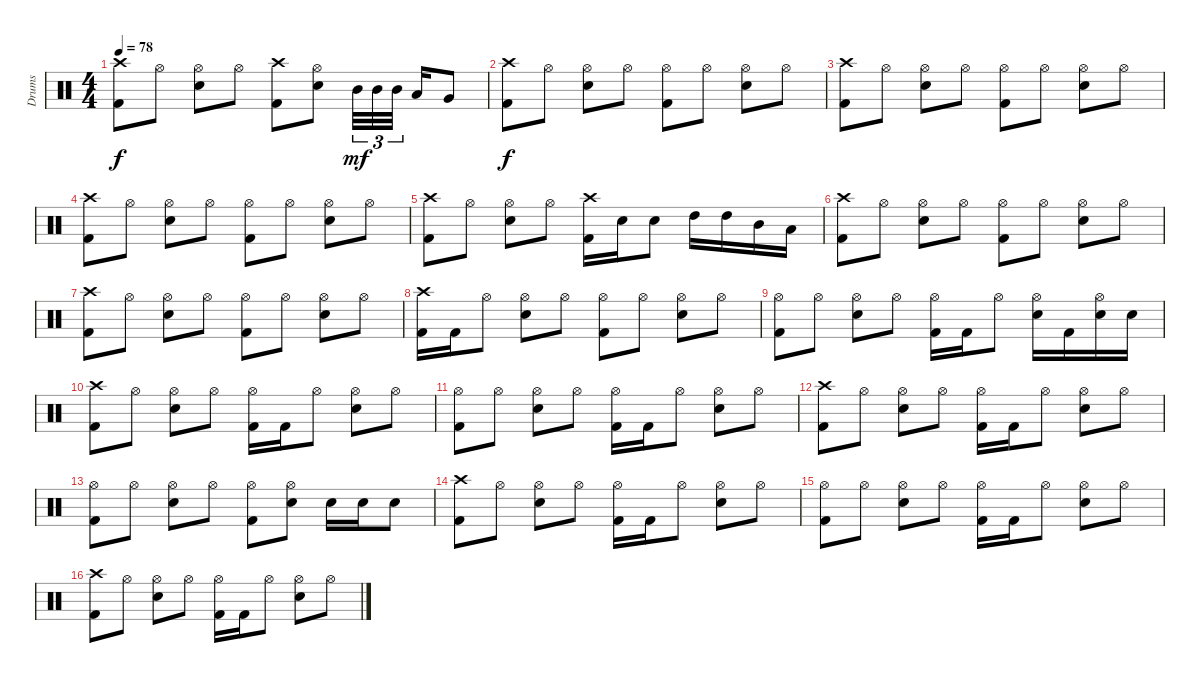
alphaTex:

\track ("Drums" "Drums") {instrument percussion}
\staff {score}
\articulation defaults
\ts (4 4)
\tempo 78
\clef neutral
\ks c
("Crash high (hit)" "Kick (hit) 2").8{dy f} "Hi-Hat (open)".8 ("Hi-Hat (open)" "Snare (hit) 2").8 "Hi-Hat (open)".8 ("Crash high (hit)" "Kick (hit) 2").8 ("Hi-Hat (open)" "Snare (hit) 2").8 "Mid Tom (hit)".32{tu (3 2) dy mf} "Mid Tom (hit)".32{tu (3 2)} "Mid Tom (hit)".32{tu (3 2)} "Low Tom (hit)".16 "Very Low Tom (hit)".8 |
("Crash high (hit)" "Kick (hit) 2").8{dy f} "Hi-Hat (open)".8 ("Hi-Hat (open)" "Snare (hit) 2").8 "Hi-Hat (open)".8 ("Hi-Hat (open)" "Kick (hit) 2").8 "Hi-Hat (open)".8 ("Hi-Hat (open)" "Snare (hit) 2").8 "Hi-Hat (open)".8 |
("Crash high (hit)" "Kick (hit) 2").8 "Hi-Hat (open)".8 ("Hi-Hat (open)" "Snare (hit) 2").8 "Hi-Hat (open)".8 ("Hi-Hat (open)" "Kick (hit) 2").8 "Hi-Hat (open)".8 ("Hi-Hat (open)" "Snare (hit) 2").8 "Hi-Hat (open)".8 |
("Crash high (hit)" "Kick (hit) 2").8 "Hi-Hat (open)".8 ("Hi-Hat (open)" "Snare (hit) 2").8 "Hi-Hat (open)".8 ("Hi-Hat (open)" "Kick (hit) 2").8 "Hi-Hat (open)".8 ("Hi-Hat (open)" "Snare (hit) 2").8 "Hi-Hat (open)".8 |
("Crash high (hit)" "Kick (hit) 2").8 "Hi-Hat (open)".8 ("Hi-Hat (open)" "Snare (hit) 2").8 "Hi-Hat (open)".8 ("Crash high (hit)" "Kick (hit) 2").16 "Snare (hit) 2".16 "Snare (hit) 2".8 "High Tom (hit)".16 "High Tom (hit)".16 "Mid Tom (hit)".16 "Low Tom (hit)".16 |
("Crash high (hit)" "Kick (hit) 2").8 "Hi-Hat (open)".8 ("Hi-Hat (open)" "Snare (hit) 2").8 "Hi-Hat (open)".8 ("Hi-Hat (open)" "Kick (hit) 2").8 "Hi-Hat (open)".8 ("Hi-Hat (open)" "Snare (hit) 2").8 "Hi-Hat (open)".8 |
("Crash high (hit)" "Kick (hit) 2").8 "Hi-Hat (open)".8 ("Hi-Hat (open)" "Snare (hit) 2").8 "Hi-Hat (open)".8 ("Hi-Hat (open)" "Kick (hit) 2").8 "Hi-Hat (open)".8 ("Hi-Hat (open)" "Snare (hit) 2").8 "Hi-Hat (open)".8 |
("Crash high (hit)" "Kick (hit) 2").16 "Kick (hit) 2".16 "Hi-Hat (open)".8 ("Hi-Hat (open)" "Snare (hit) 2").8 "Hi-Hat (open)".8 ("Hi-Hat (open)" "Kick (hit) 2").8 "Hi-Hat (open)".8 ("Hi-Hat (open)" "Snare (hit) 2").8 "Hi-Hat (open)".8 |
("Hi-Hat (open)" "Kick (hit) 2").8 "Hi-Hat (open)".8 ("Hi-Hat (open)" "Snare (hit) 2").8 "Hi-Hat (open)".8 ("Hi-Hat (open)" "Kick (hit) 2").16 "Kick (hit) 2".16 "Hi-Hat (open)".8 ("Hi-Hat (open)" "Snare (hit) 2").16 "Kick (hit) 2".16 ("Hi-Hat (open)" "Snare (hit) 2").16 "Snare (hit) 2".16 |
("Crash high (hit)" "Kick (hit) 2").8 "Hi-Hat (open)".8 ("Hi-Hat (open)" "Snare (hit) 2").8 "Hi-Hat (open)".8 ("Hi-Hat (open)" "Kick (hit) 2").16 "Kick (hit) 2".16 "Hi-Hat (open)".8 ("Hi-Hat (open)" "Snare (hit) 2").8 "Hi-Hat (open)".8 |
("Hi-Hat (open)" "Kick (hit) 2").8 "Hi-Hat (open)".8 ("Hi-Hat (open)" "Snare (hit) 2").8 "Hi-Hat (open)".8 ("Hi-Hat (open)" "Kick (hit) 2").16 "Kick (hit) 2".16 "Hi-Hat (open)".8 ("Hi-Hat (open)" "Snare (hit) 2").8 "Hi-Hat (open)".8 |
("Crash high (hit)" "Kick (hit) 2").8 "Hi-Hat (open)".8 ("Hi-Hat (open)" "Snare (hit) 2").8 "Hi-Hat (open)".8 ("Hi-Hat (open)" "Kick (hit) 2").16 "Kick (hit) 2".16 "Hi-Hat (open)".8 ("Hi-Hat (open)" "Snare (hit) 2").8 "Hi-Hat (open)".8 |
("Hi-Hat (open)" "Kick (hit) 2").8 "Hi-Hat (open)".8 ("Hi-Hat (open)" "Snare (hit) 2").8 "Hi-Hat (open)".8 ("Hi-Hat (open)" "Kick (hit) 2").8 ("Hi-Hat (open)" "Snare (hit) 2").8 "Snare (hit) 2".16 "Snare (hit) 2".16 "Snare (hit) 2".8 |
("Crash high (hit)" "Kick (hit) 2").8 "Hi-Hat (open)".8 ("Hi-Hat (open)" "Snare (hit) 2").8 "Hi-Hat (open)".8 ("Hi-Hat (open)" "Kick (hit) 2").16 "Kick (hit) 2".16 "Hi-Hat (open)".8 ("Hi-Hat (open)" "Snare (hit) 2").8 "Hi-Hat (open)".8 |
("Hi-Hat (open)" "Kick (hit) 2").8 "Hi-Hat (open)".8 ("Hi-Hat (open)" "Snare (hit) 2").8 "Hi-Hat (open)".8 ("Hi-Hat (open)" "Kick (hit) 2").16 "Kick (hit) 2".16 "Hi-Hat (open)".8 ("Hi-Hat (open)" "Snare (hit) 2").8 "Hi-Hat (open)".8 |
("Crash high (hit)" "Kick (hit) 2").8 "Hi-Hat (open)".8 ("Hi-Hat (open)" "Snare (hit) 2").8 "Hi-Hat (open)".8 ("Hi-Hat (open)" "Kick (hit) 2").16 "Kick (hit) 2".16 "Hi-Hat (open)".8 ("Hi-Hat (open)" "Snare (hit) 2").8 "Hi-Hat (open)".8
